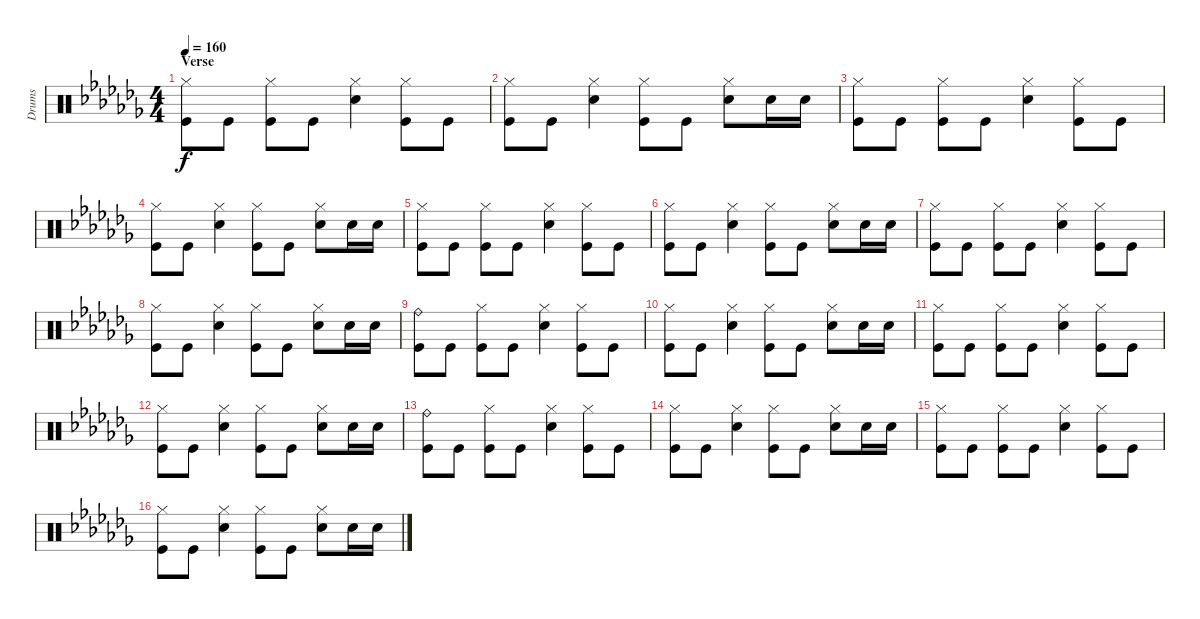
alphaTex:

\track ("Drums" "Drums") {instrument percussion}
\staff {score}
\articulation defaults
\ts (4 4)
\section ("" "Verse")
\tempo 160
\clef neutral
\ks cb
("Hi-Hat (closed)" "Kick (hit)").8{dy f} "Kick (hit)".8 ("Hi-Hat (closed)" "Kick (hit)").8 "Kick (hit)".8 ("Hi-Hat (closed)" "Electric Snare (hit)").4 ("Hi-Hat (closed)" "Kick (hit)").8 "Kick (hit)".8 |
("Hi-Hat (closed)" "Kick (hit)").8 "Kick (hit)".8 ("Hi-Hat (closed)" "Electric Snare (hit)").4 ("Hi-Hat (closed)" "Kick (hit)").8 "Kick (hit)".8 ("Hi-Hat (closed)" "Electric Snare (hit)").8 "Electric Snare (hit)".16 "Electric Snare (hit)".16 |
("Hi-Hat (closed)" "Kick (hit)").8 "Kick (hit)".8 ("Hi-Hat (closed)" "Kick (hit)").8 "Kick (hit)".8 ("Hi-Hat (closed)" "Electric Snare (hit)").4 ("Hi-Hat (closed)" "Kick (hit)").8 "Kick (hit)".8 |
("Hi-Hat (closed)" "Kick (hit)").8 "Kick (hit)".8 ("Hi-Hat (closed)" "Electric Snare (hit)").4 ("Hi-Hat (closed)" "Kick (hit)").8 "Kick (hit)".8 ("Hi-Hat (closed)" "Electric Snare (hit)").8 "Electric Snare (hit)".16 "Electric Snare (hit)".16 |
("Hi-Hat (closed)" "Kick (hit)").8 "Kick (hit)".8 ("Hi-Hat (closed)" "Kick (hit)").8 "Kick (hit)".8 ("Hi-Hat (closed)" "Electric Snare (hit)").4 ("Hi-Hat (closed)" "Kick (hit)").8 "Kick (hit)".8 |
("Hi-Hat (closed)" "Kick (hit)").8 "Kick (hit)".8 ("Hi-Hat (closed)" "Electric Snare (hit)").4 ("Hi-Hat (closed)" "Kick (hit)").8 "Kick (hit)".8 ("Hi-Hat (closed)" "Electric Snare (hit)").8 "Electric Snare (hit)".16 "Electric Snare (hit)".16 |
("Hi-Hat (closed)" "Kick (hit)").8 "Kick (hit)".8 ("Hi-Hat (closed)" "Kick (hit)").8 "Kick (hit)".8 ("Hi-Hat (closed)" "Electric Snare (hit)").4 ("Hi-Hat (closed)" "Kick (hit)").8 "Kick (hit)".8 |
("Hi-Hat (closed)" "Kick (hit)").8 "Kick (hit)".8 ("Hi-Hat (closed)" "Electric Snare (hit)").4 ("Hi-Hat (closed)" "Kick (hit)").8 "Kick (hit)".8 ("Hi-Hat (closed)" "Electric Snare (hit)").8 "Electric Snare (hit)".16 "Electric Snare (hit)".16 |
("Ride (bell)" "Kick (hit)").8 "Kick (hit)".8 ("Hi-Hat (closed)" "Kick (hit)").8 "Kick (hit)".8 ("Hi-Hat (closed)" "Electric Snare (hit)").4 ("Hi-Hat (closed)" "Kick (hit)").8 "Kick (hit)".8 |
("Hi-Hat (closed)" "Kick (hit)").8 "Kick (hit)".8 ("Hi-Hat (closed)" "Electric Snare (hit)").4 ("Hi-Hat (closed)" "Kick (hit)").8 "Kick (hit)".8 ("Hi-Hat (closed)" "Electric Snare (hit)").8 "Electric Snare (hit)".16 "Electric Snare (hit)".16 |
("Hi-Hat (closed)" "Kick (hit)").8 "Kick (hit)".8 ("Hi-Hat (closed)" "Kick (hit)").8 "Kick (hit)".8 ("Hi-Hat (closed)" "Electric Snare (hit)").4 ("Hi-Hat (closed)" "Kick (hit)").8 "Kick (hit)".8 |
("Hi-Hat (closed)" "Kick (hit)").8 "Kick (hit)".8 ("Hi-Hat (closed)" "Electric Snare (hit)").4 ("Hi-Hat (closed)" "Kick (hit)").8 "Kick (hit)".8 ("Hi-Hat (closed)" "Electric Snare (hit)").8 "Electric Snare (hit)".16 "Electric Snare (hit)".16 |
("Ride (bell)" "Kick (hit)").8 "Kick (hit)".8 ("Hi-Hat (closed)" "Kick (hit)").8 "Kick (hit)".8 ("Hi-Hat (closed)" "Electric Snare (hit)").4 ("Hi-Hat (closed)" "Kick (hit)").8 "Kick (hit)".8 |
("Hi-Hat (closed)" "Kick (hit)").8 "Kick (hit)".8 ("Hi-Hat (closed)" "Electric Snare (hit)").4 ("Hi-Hat (closed)" "Kick (hit)").8 "Kick (hit)".8 ("Hi-Hat (closed)" "Electric Snare (hit)").8 "Electric Snare (hit)".16 "Electric Snare (hit)".16 |
("Hi-Hat (closed)" "Kick (hit)").8 "Kick (hit)".8 ("Hi-Hat (closed)" "Kick (hit)").8 "Kick (hit)".8 ("Hi-Hat (closed)" "Electric Snare (hit)").4 ("Hi-Hat (closed)" "Kick (hit)").8 "Kick (hit)".8 |
("Hi-Hat (closed)" "Kick (hit)").8 "Kick (hit)".8 ("Hi-Hat (closed)" "Electric Snare (hit)").4 ("Hi-Hat (closed)" "Kick (hit)").8 "Kick (hit)".8 ("Hi-Hat (closed)" "Electric Snare (hit)").8 "Electric Snare (hit)".16 "Electric Snare (hit)".16
